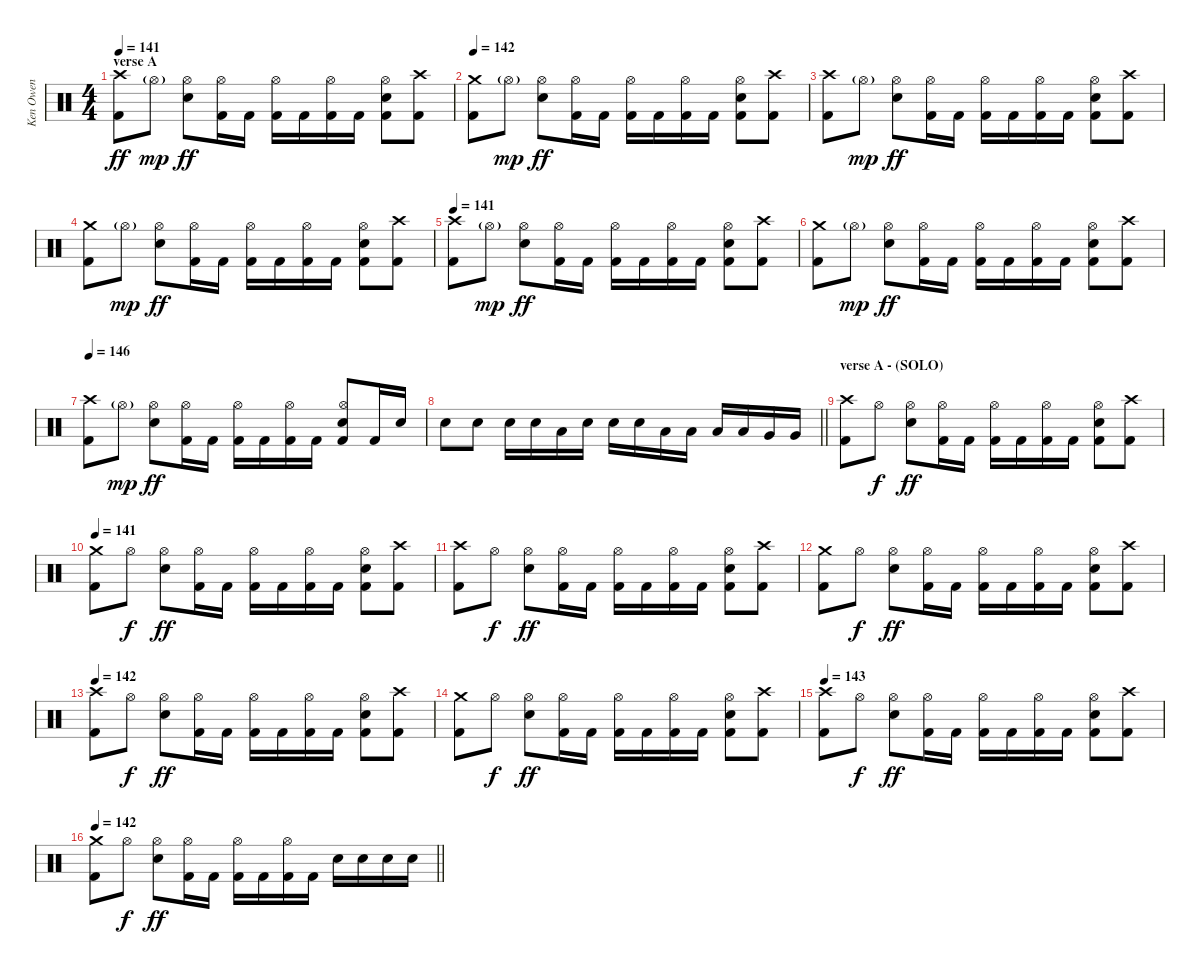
\track ("Ken Owen" "Ken Owen") {instrument percussion}
\staff {score}
\articulation defaults
\ts (4 4)
\section ("" "verse A")
\tempo 141
\clef neutral
\ks c
("Crash high (hit)" "Kick (hit) 2").8{dy ff} "Hi-Hat (open)"{g}.8{dy mp} ("Hi-Hat (open)" "Snare (hit) 2").8{dy ff} ("Hi-Hat (open)" "Kick (hit) 2").16 "Kick (hit) 2".16 ("Hi-Hat (open)" "Kick (hit) 2").16 "Kick (hit) 2".16 ("Hi-Hat (open)" "Kick (hit) 2").16 "Kick (hit) 2".16 ("Hi-Hat (open)" "Snare (hit) 2" "Kick (hit) 2").8 ("Crash high (hit)" "Kick (hit) 2").8 |
\tempo 142
("Crash medium (hit)" "Kick (hit) 2").8 "Hi-Hat (open)"{g}.8{dy mp} ("Hi-Hat (open)" "Snare (hit) 2").8{dy ff} ("Hi-Hat (open)" "Kick (hit) 2").16 "Kick (hit) 2".16 ("Hi-Hat (open)" "Kick (hit) 2").16 "Kick (hit) 2".16 ("Hi-Hat (open)" "Kick (hit) 2").16 "Kick (hit) 2".16 ("Hi-Hat (open)" "Snare (hit) 2" "Kick (hit) 2").8 ("Crash high (hit)" "Kick (hit) 2").8 |
("Crash high (hit)" "Kick (hit) 2").8 "Hi-Hat (open)"{g}.8{dy mp} ("Hi-Hat (open)" "Snare (hit) 2").8{dy ff} ("Hi-Hat (open)" "Kick (hit) 2").16 "Kick (hit) 2".16 ("Hi-Hat (open)" "Kick (hit) 2").16 "Kick (hit) 2".16 ("Hi-Hat (open)" "Kick (hit) 2").16 "Kick (hit) 2".16 ("Hi-Hat (open)" "Snare (hit) 2" "Kick (hit) 2").8 ("Crash high (hit)" "Kick (hit) 2").8 |
("Crash medium (hit)" "Kick (hit) 2").8 "Hi-Hat (open)"{g}.8{dy mp} ("Hi-Hat (open)" "Snare (hit) 2").8{dy ff} ("Hi-Hat (open)" "Kick (hit) 2").16 "Kick (hit) 2".16 ("Hi-Hat (open)" "Kick (hit) 2").16 "Kick (hit) 2".16 ("Hi-Hat (open)" "Kick (hit) 2").16 "Kick (hit) 2".16 ("Hi-Hat (open)" "Snare (hit) 2" "Kick (hit) 2").8 ("Crash high (hit)" "Kick (hit) 2").8 |
\tempo 141
("Crash high (hit)" "Kick (hit) 2").8 "Hi-Hat (open)"{g}.8{dy mp} ("Hi-Hat (open)" "Snare (hit) 2").8{dy ff} ("Hi-Hat (open)" "Kick (hit) 2").16 "Kick (hit) 2".16 ("Hi-Hat (open)" "Kick (hit) 2").16 "Kick (hit) 2".16 ("Hi-Hat (open)" "Kick (hit) 2").16 "Kick (hit) 2".16 ("Hi-Hat (open)" "Snare (hit) 2" "Kick (hit) 2").8 ("Crash high (hit)" "Kick (hit) 2").8 |
("Crash medium (hit)" "Kick (hit) 2").8 "Hi-Hat (open)"{g}.8{dy mp} ("Hi-Hat (open)" "Snare (hit) 2").8{dy ff} ("Hi-Hat (open)" "Kick (hit) 2").16 "Kick (hit) 2".16 ("Hi-Hat (open)" "Kick (hit) 2").16 "Kick (hit) 2".16 ("Hi-Hat (open)" "Kick (hit) 2").16 "Kick (hit) 2".16 ("Hi-Hat (open)" "Snare (hit) 2" "Kick (hit) 2").8 ("Crash high (hit)" "Kick (hit) 2").8 |
\tempo 146
("Crash high (hit)" "Kick (hit) 2").8 "Hi-Hat (open)"{g}.8{dy mp} ("Hi-Hat (open)" "Snare (hit) 2").8{dy ff} ("Hi-Hat (open)" "Kick (hit) 2").16 "Kick (hit) 2".16 ("Hi-Hat (open)" "Kick (hit) 2").16 "Kick (hit) 2".16 ("Hi-Hat (open)" "Kick (hit) 2").16 "Kick (hit) 2".16 ("Hi-Hat (open)" "Snare (hit) 2" "Kick (hit) 2").8 "Kick (hit) 2".16 "Snare (hit) 2".16 |
\barLineRight lightlight "Snare (hit) 2".8 "Snare (hit) 2".8 "Snare (hit) 2".16 "Snare (hit) 2".16 "Low Tom (hit)".16 "Snare (hit) 2".16 "Snare (hit) 2".16 "Snare (hit) 2".16 "Low Tom (hit)".16 "Low Tom (hit)".16 "Low Tom (hit)".16 "Low Tom (hit)".16 "Very Low Tom (hit)".16 "Very Low Tom (hit)".16
|
\section ("" "verse A - (SOLO)")
("Crash high (hit)" "Kick (hit) 2").8 "Hi-Hat (open)".8{dy f} ("Hi-Hat (open)" "Snare (hit) 2").8{dy ff} ("Hi-Hat (open)" "Kick (hit) 2").16 "Kick (hit) 2".16 ("Hi-Hat (open)" "Kick (hit) 2").16 "Kick (hit) 2".16 ("Hi-Hat (open)" "Kick (hit) 2").16 "Kick (hit) 2".16 ("Hi-Hat (open)" "Snare (hit) 2" "Kick (hit) 2").8 ("Crash high (hit)" "Kick (hit) 2").8 |
\tempo 141
("Crash medium (hit)" "Kick (hit) 2").8 "Hi-Hat (open)".8{dy f} ("Hi-Hat (open)" "Snare (hit) 2").8{dy ff} ("Hi-Hat (open)" "Kick (hit) 2").16 "Kick (hit) 2".16 ("Hi-Hat (open)" "Kick (hit) 2").16 "Kick (hit) 2".16 ("Hi-Hat (open)" "Kick (hit) 2").16 "Kick (hit) 2".16 ("Hi-Hat (open)" "Snare (hit) 2" "Kick (hit) 2").8 ("Crash high (hit)" "Kick (hit) 2").8 |
("Crash high (hit)" "Kick (hit) 2").8 "Hi-Hat (open)".8{dy f} ("Hi-Hat (open)" "Snare (hit) 2").8{dy ff} ("Hi-Hat (open)" "Kick (hit) 2").16 "Kick (hit) 2".16 ("Hi-Hat (open)" "Kick (hit) 2").16 "Kick (hit) 2".16 ("Hi-Hat (open)" "Kick (hit) 2").16 "Kick (hit) 2".16 ("Hi-Hat (open)" "Snare (hit) 2" "Kick (hit) 2").8 ("Crash high (hit)" "Kick (hit) 2").8 |
("Crash medium (hit)" "Kick (hit) 2").8 "Hi-Hat (open)".8{dy f} ("Hi-Hat (open)" "Snare (hit) 2").8{dy ff} ("Hi-Hat (open)" "Kick (hit) 2").16 "Kick (hit) 2".16 ("Hi-Hat (open)" "Kick (hit) 2").16 "Kick (hit) 2".16 ("Hi-Hat (open)" "Kick (hit) 2").16 "Kick (hit) 2".16 ("Hi-Hat (open)" "Snare (hit) 2" "Kick (hit) 2").8 ("Crash high (hit)" "Kick (hit) 2").8 |
\tempo 142
("Crash high (hit)" "Kick (hit) 2").8 "Hi-Hat (open)".8{dy f} ("Hi-Hat (open)" "Snare (hit) 2").8{dy ff} ("Hi-Hat (open)" "Kick (hit) 2").16 "Kick (hit) 2".16 ("Hi-Hat (open)" "Kick (hit) 2").16 "Kick (hit) 2".16 ("Hi-Hat (open)" "Kick (hit) 2").16 "Kick (hit) 2".16 ("Hi-Hat (open)" "Snare (hit) 2" "Kick (hit) 2").8 ("Crash high (hit)" "Kick (hit) 2").8 |
("Crash medium (hit)" "Kick (hit) 2").8 "Hi-Hat (open)".8{dy f} ("Hi-Hat (open)" "Snare (hit) 2").8{dy ff} ("Hi-Hat (open)" "Kick (hit) 2").16 "Kick (hit) 2".16 ("Hi-Hat (open)" "Kick (hit) 2").16 "Kick (hit) 2".16 ("Hi-Hat (open)" "Kick (hit) 2").16 "Kick (hit) 2".16 ("Hi-Hat (open)" "Snare (hit) 2" "Kick (hit) 2").8 ("Crash high (hit)" "Kick (hit) 2").8 |
\tempo 143
("Crash high (hit)" "Kick (hit) 2").8 "Hi-Hat (open)".8{dy f} ("Hi-Hat (open)" "Snare (hit) 2").8{dy ff} ("Hi-Hat (open)" "Kick (hit) 2").16 "Kick (hit) 2".16 ("Hi-Hat (open)" "Kick (hit) 2").16 "Kick (hit) 2".16 ("Hi-Hat (open)" "Kick (hit) 2").16 "Kick (hit) 2".16 ("Hi-Hat (open)" "Snare (hit) 2" "Kick (hit) 2").8 ("Crash high (hit)" "Kick (hit) 2").8 |
\tempo 142
\barLineRight lightlight
("Crash medium (hit)" "Kick (hit) 2").8 "Hi-Hat (open)".8{dy f} ("Hi-Hat (open)" "Snare (hit) 2").8{dy ff} ("Hi-Hat (open)" "Kick (hit) 2").16 "Kick (hit) 2".16 ("Hi-Hat (open)" "Kick (hit) 2").16 "Kick (hit) 2".16 ("Hi-Hat (open)" "Kick (hit) 2").16 "Kick (hit) 2".16 "Snare (hit) 2".16 "Snare (hit) 2".16 "Snare (hit) 2".16 "Snare (hit) 2".16
